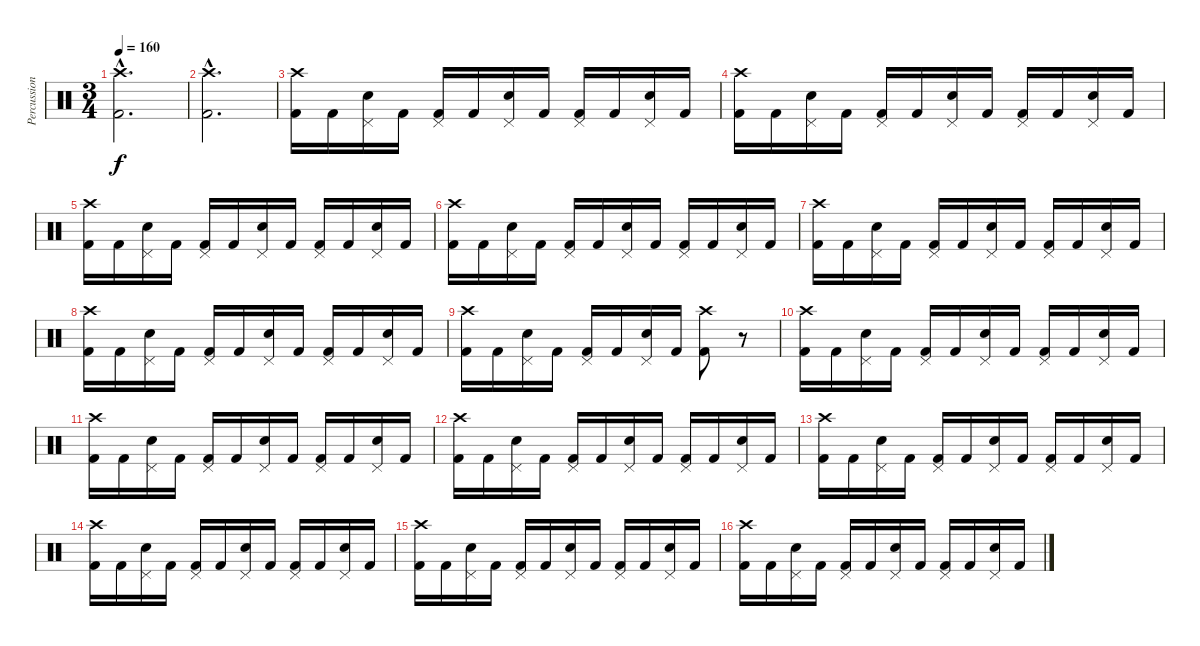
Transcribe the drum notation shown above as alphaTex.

\track ("Percussion" "Percussion") {instrument percussion}
\staff {score}
\articulation defaults
\ts (3 4)
\tempo 160
\clef neutral
\ks c
("Crash high (hit)"{hac} "Kick (hit) 2"{hac}).2{d dy f} |
("Crash high (hit)"{hac} "Kick (hit) 2"{hac}).2{d} |
("Crash high (hit)" "Kick (hit) 2").16 "Kick (hit) 2".16 ("Pedal Hi-Hat (hit)" "Snare (hit) 2").16 "Kick (hit) 2".16 ("Pedal Hi-Hat (hit)" "Kick (hit) 2").16 "Kick (hit) 2".16 ("Pedal Hi-Hat (hit)" "Snare (hit) 2").16 "Kick (hit) 2".16 ("Pedal Hi-Hat (hit)" "Kick (hit) 2").16 "Kick (hit) 2".16 ("Pedal Hi-Hat (hit)" "Snare (hit) 2").16 "Kick (hit) 2".16 |
("Crash high (hit)" "Kick (hit) 2").16 "Kick (hit) 2".16 ("Pedal Hi-Hat (hit)" "Snare (hit) 2").16 "Kick (hit) 2".16 ("Pedal Hi-Hat (hit)" "Kick (hit) 2").16 "Kick (hit) 2".16 ("Pedal Hi-Hat (hit)" "Snare (hit) 2").16 "Kick (hit) 2".16 ("Pedal Hi-Hat (hit)" "Kick (hit) 2").16 "Kick (hit) 2".16 ("Pedal Hi-Hat (hit)" "Snare (hit) 2").16 "Kick (hit) 2".16 |
("Crash high (hit)" "Kick (hit) 2").16 "Kick (hit) 2".16 ("Pedal Hi-Hat (hit)" "Snare (hit) 2").16 "Kick (hit) 2".16 ("Pedal Hi-Hat (hit)" "Kick (hit) 2").16 "Kick (hit) 2".16 ("Pedal Hi-Hat (hit)" "Snare (hit) 2").16 "Kick (hit) 2".16 ("Pedal Hi-Hat (hit)" "Kick (hit) 2").16 "Kick (hit) 2".16 ("Pedal Hi-Hat (hit)" "Snare (hit) 2").16 "Kick (hit) 2".16 |
("Crash high (hit)" "Kick (hit) 2").16 "Kick (hit) 2".16 ("Pedal Hi-Hat (hit)" "Snare (hit) 2").16 "Kick (hit) 2".16 ("Pedal Hi-Hat (hit)" "Kick (hit) 2").16 "Kick (hit) 2".16 ("Pedal Hi-Hat (hit)" "Snare (hit) 2").16 "Kick (hit) 2".16 ("Pedal Hi-Hat (hit)" "Kick (hit) 2").16 "Kick (hit) 2".16 ("Pedal Hi-Hat (hit)" "Snare (hit) 2").16 "Kick (hit) 2".16 |
("Crash high (hit)" "Kick (hit) 2").16 "Kick (hit) 2".16 ("Pedal Hi-Hat (hit)" "Snare (hit) 2").16 "Kick (hit) 2".16 ("Pedal Hi-Hat (hit)" "Kick (hit) 2").16 "Kick (hit) 2".16 ("Pedal Hi-Hat (hit)" "Snare (hit) 2").16 "Kick (hit) 2".16 ("Pedal Hi-Hat (hit)" "Kick (hit) 2").16 "Kick (hit) 2".16 ("Pedal Hi-Hat (hit)" "Snare (hit) 2").16 "Kick (hit) 2".16 |
("Crash high (hit)" "Kick (hit) 2").16 "Kick (hit) 2".16 ("Pedal Hi-Hat (hit)" "Snare (hit) 2").16 "Kick (hit) 2".16 ("Pedal Hi-Hat (hit)" "Kick (hit) 2").16 "Kick (hit) 2".16 ("Pedal Hi-Hat (hit)" "Snare (hit) 2").16 "Kick (hit) 2".16 ("Pedal Hi-Hat (hit)" "Kick (hit) 2").16 "Kick (hit) 2".16 ("Pedal Hi-Hat (hit)" "Snare (hit) 2").16 "Kick (hit) 2".16 |
("Crash high (hit)" "Kick (hit) 2").16 "Kick (hit) 2".16 ("Pedal Hi-Hat (hit)" "Snare (hit) 2").16 "Kick (hit) 2".16 ("Pedal Hi-Hat (hit)" "Kick (hit) 2").16 "Kick (hit) 2".16 ("Pedal Hi-Hat (hit)" "Snare (hit) 2").16 "Kick (hit) 2".16 ("Crash high (hit)" "Kick (hit) 2").8 r.8 |
("Crash high (hit)" "Kick (hit) 2").16 "Kick (hit) 2".16 ("Pedal Hi-Hat (hit)" "Snare (hit) 2").16 "Kick (hit) 2".16 ("Pedal Hi-Hat (hit)" "Kick (hit) 2").16 "Kick (hit) 2".16 ("Pedal Hi-Hat (hit)" "Snare (hit) 2").16 "Kick (hit) 2".16 ("Pedal Hi-Hat (hit)" "Kick (hit) 2").16 "Kick (hit) 2".16 ("Pedal Hi-Hat (hit)" "Snare (hit) 2").16 "Kick (hit) 2".16 |
("Crash high (hit)" "Kick (hit) 2").16 "Kick (hit) 2".16 ("Pedal Hi-Hat (hit)" "Snare (hit) 2").16 "Kick (hit) 2".16 ("Pedal Hi-Hat (hit)" "Kick (hit) 2").16 "Kick (hit) 2".16 ("Pedal Hi-Hat (hit)" "Snare (hit) 2").16 "Kick (hit) 2".16 ("Pedal Hi-Hat (hit)" "Kick (hit) 2").16 "Kick (hit) 2".16 ("Pedal Hi-Hat (hit)" "Snare (hit) 2").16 "Kick (hit) 2".16 |
("Crash high (hit)" "Kick (hit) 2").16 "Kick (hit) 2".16 ("Pedal Hi-Hat (hit)" "Snare (hit) 2").16 "Kick (hit) 2".16 ("Pedal Hi-Hat (hit)" "Kick (hit) 2").16 "Kick (hit) 2".16 ("Pedal Hi-Hat (hit)" "Snare (hit) 2").16 "Kick (hit) 2".16 ("Pedal Hi-Hat (hit)" "Kick (hit) 2").16 "Kick (hit) 2".16 ("Pedal Hi-Hat (hit)" "Snare (hit) 2").16 "Kick (hit) 2".16 |
("Crash high (hit)" "Kick (hit) 2").16 "Kick (hit) 2".16 ("Pedal Hi-Hat (hit)" "Snare (hit) 2").16 "Kick (hit) 2".16 ("Pedal Hi-Hat (hit)" "Kick (hit) 2").16 "Kick (hit) 2".16 ("Pedal Hi-Hat (hit)" "Snare (hit) 2").16 "Kick (hit) 2".16 ("Pedal Hi-Hat (hit)" "Kick (hit) 2").16 "Kick (hit) 2".16 ("Pedal Hi-Hat (hit)" "Snare (hit) 2").16 "Kick (hit) 2".16 |
("Crash high (hit)" "Kick (hit) 2").16 "Kick (hit) 2".16 ("Pedal Hi-Hat (hit)" "Snare (hit) 2").16 "Kick (hit) 2".16 ("Pedal Hi-Hat (hit)" "Kick (hit) 2").16 "Kick (hit) 2".16 ("Pedal Hi-Hat (hit)" "Snare (hit) 2").16 "Kick (hit) 2".16 ("Pedal Hi-Hat (hit)" "Kick (hit) 2").16 "Kick (hit) 2".16 ("Pedal Hi-Hat (hit)" "Snare (hit) 2").16 "Kick (hit) 2".16 |
("Crash high (hit)" "Kick (hit) 2").16 "Kick (hit) 2".16 ("Pedal Hi-Hat (hit)" "Snare (hit) 2").16 "Kick (hit) 2".16 ("Pedal Hi-Hat (hit)" "Kick (hit) 2").16 "Kick (hit) 2".16 ("Pedal Hi-Hat (hit)" "Snare (hit) 2").16 "Kick (hit) 2".16 ("Pedal Hi-Hat (hit)" "Kick (hit) 2").16 "Kick (hit) 2".16 ("Pedal Hi-Hat (hit)" "Snare (hit) 2").16 "Kick (hit) 2".16 |
("Crash high (hit)" "Kick (hit) 2").16 "Kick (hit) 2".16 ("Pedal Hi-Hat (hit)" "Snare (hit) 2").16 "Kick (hit) 2".16 ("Pedal Hi-Hat (hit)" "Kick (hit) 2").16 "Kick (hit) 2".16 ("Pedal Hi-Hat (hit)" "Snare (hit) 2").16 "Kick (hit) 2".16 ("Pedal Hi-Hat (hit)" "Kick (hit) 2").16 "Kick (hit) 2".16 ("Pedal Hi-Hat (hit)" "Snare (hit) 2").16 "Kick (hit) 2".16
